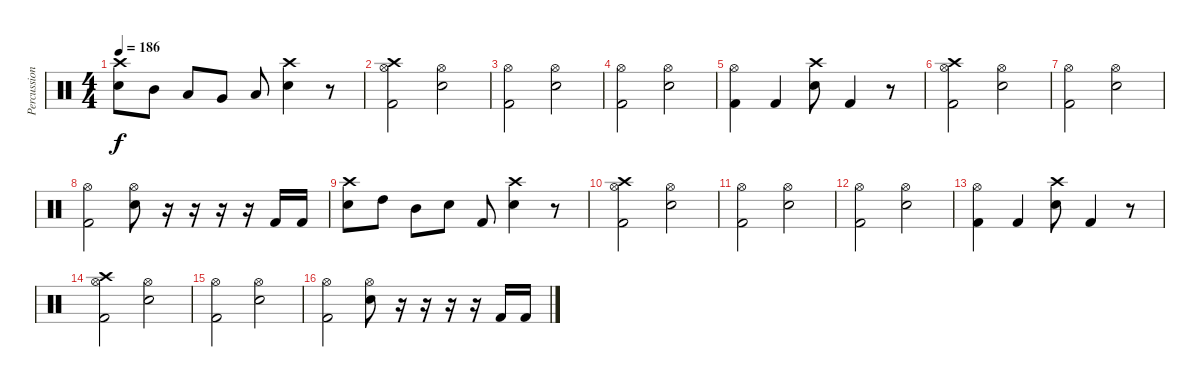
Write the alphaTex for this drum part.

\track ("Percussion" "Percussion") {instrument percussion}
\staff {score}
\articulation defaults
\ts (4 4)
\tempo 186
\clef neutral
\ks c
("Crash high (hit)" "Electric Snare (hit)").8{dy f} "Mid Tom (hit)".8 "Low Tom (hit)".8 "Very Low Tom (hit)".8 "Low Floor Tom (hit)".8 ("Crash high (hit)" "Electric Snare (hit)").4 r.8 |
("Crash high (hit)" "Hi-Hat (open)" "Kick (hit) 2").2 ("Hi-Hat (open)" "Electric Snare (hit)").2 |
("Hi-Hat (open)" "Kick (hit) 2").2 ("Hi-Hat (open)" "Electric Snare (hit)").2 |
("Hi-Hat (open)" "Kick (hit) 2").2 ("Hi-Hat (open)" "Electric Snare (hit)").2 |
("Hi-Hat (open)" "Kick (hit) 2").4 "Kick (hit) 2".4 ("Crash high (hit)" "Electric Snare (hit)").8 "Kick (hit) 2".4 r.8 |
("Crash high (hit)" "Hi-Hat (open)" "Kick (hit) 2").2 ("Hi-Hat (open)" "Electric Snare (hit)").2 |
("Hi-Hat (open)" "Kick (hit) 2").2 ("Hi-Hat (open)" "Electric Snare (hit)").2 |
("Hi-Hat (open)" "Kick (hit) 2").2 ("Hi-Hat (open)" "Electric Snare (hit)").8 r.16 r.16 r.16 r.16 "Kick (hit) 2".16 "Kick (hit) 2".16 |
("Crash high (hit)" "Electric Snare (hit)").8 "High Tom (hit)".8 "Mid Tom (hit)".8 "Electric Snare (hit)".8 "Kick (hit) 2".8 ("Crash high (hit)" "Electric Snare (hit)").4 r.8 |
("Crash high (hit)" "Hi-Hat (open)" "Kick (hit) 2").2 ("Hi-Hat (open)" "Electric Snare (hit)").2 |
("Hi-Hat (open)" "Kick (hit) 2").2 ("Hi-Hat (open)" "Electric Snare (hit)").2 |
("Hi-Hat (open)" "Kick (hit) 2").2 ("Hi-Hat (open)" "Electric Snare (hit)").2 |
("Hi-Hat (open)" "Kick (hit) 2").4 "Kick (hit) 2".4 ("Crash high (hit)" "Electric Snare (hit)").8 "Kick (hit) 2".4 r.8 |
("Crash high (hit)" "Hi-Hat (open)" "Kick (hit) 2").2 ("Hi-Hat (open)" "Electric Snare (hit)").2 |
("Hi-Hat (open)" "Kick (hit) 2").2 ("Hi-Hat (open)" "Electric Snare (hit)").2 |
("Hi-Hat (open)" "Kick (hit) 2").2 ("Hi-Hat (open)" "Electric Snare (hit)").8 r.16 r.16 r.16 r.16 "Kick (hit) 2".16 "Kick (hit) 2".16
